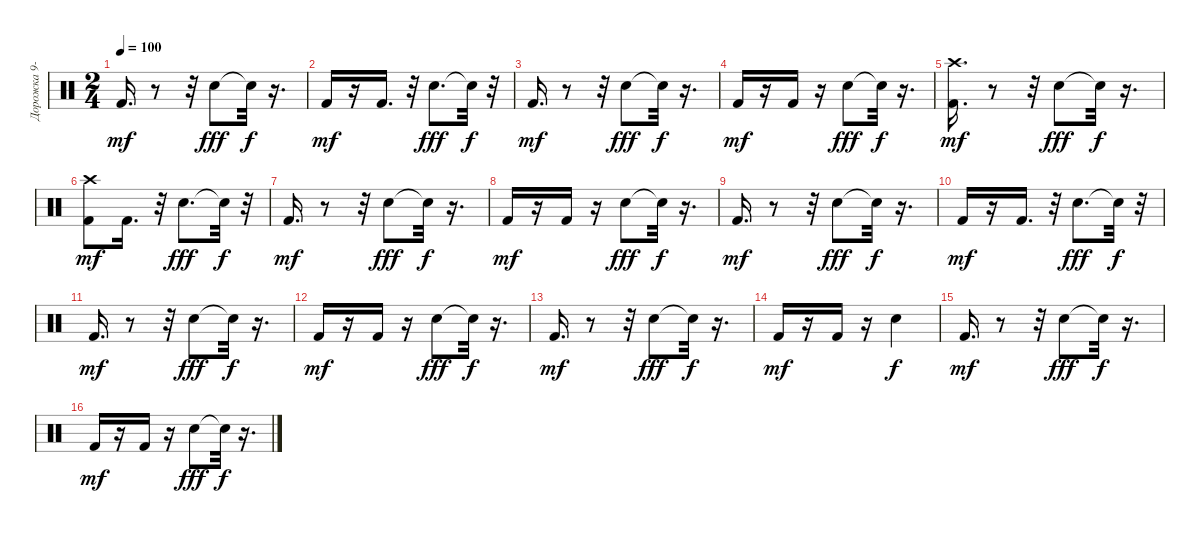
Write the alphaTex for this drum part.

\track ("Дорожка 9-10" "Дорожка 9-") {instrument percussion}
\staff {score}
\articulation defaults
\ts (2 4)
\tempo 100
\clef neutral
\ks c "Kick (hit) 2".16{d dy mf}
r.8 r.32 "Snare (hit) 2".8{dy fff} "Snare (hit)"{t}.32{dy f} r.16{d} |
"Kick (hit) 2".16{dy mf} r.16 "Kick (hit) 2".16{d} r.32 "Snare (hit) 2".8{d dy fff} "Snare (hit)"{t}.32{dy f} r.32 |
"Kick (hit) 2".16{d dy mf} r.8 r.32 "Snare (hit) 2".8{dy fff} "Snare (hit)"{t}.32{dy f} r.16{d} |
"Kick (hit) 2".16{dy mf} r.16 "Kick (hit) 2".16 r.16 "Snare (hit) 2".8{dy fff} "Snare (hit)"{t}.32{dy f} r.16{d} |
("Crash high (hit)" "Kick (hit) 2").16{d dy mf} r.8 r.32 "Snare (hit) 2".8{dy fff} "Snare (hit)"{t}.32{dy f} r.16{d} |
("Crash high (hit)" "Kick (hit) 2").8{dy mf} "Kick (hit) 2".16{d} r.32 "Snare (hit) 2".8{d dy fff} "Snare (hit)"{t}.32{dy f} r.32 |
"Kick (hit) 2".16{d dy mf} r.8 r.32 "Snare (hit) 2".8{dy fff} "Snare (hit)"{t}.32{dy f} r.16{d} |
"Kick (hit) 2".16{dy mf} r.16 "Kick (hit) 2".16 r.16 "Snare (hit) 2".8{dy fff} "Snare (hit)"{t}.32{dy f} r.16{d} |
"Kick (hit) 2".16{d dy mf} r.8 r.32 "Snare (hit) 2".8{dy fff} "Snare (hit)"{t}.32{dy f} r.16{d} |
"Kick (hit) 2".16{dy mf} r.16 "Kick (hit) 2".16{d} r.32 "Snare (hit) 2".8{d dy fff} "Snare (hit)"{t}.32{dy f} r.32 |
"Kick (hit) 2".16{d dy mf} r.8 r.32 "Snare (hit) 2".8{dy fff} "Snare (hit)"{t}.32{dy f} r.16{d} |
"Kick (hit) 2".16{dy mf} r.16 "Kick (hit) 2".16 r.16 "Snare (hit) 2".8{dy fff} "Snare (hit)"{t}.32{dy f} r.16{d} |
"Kick (hit) 2".16{d dy mf} r.8 r.32 "Snare (hit) 2".8{dy fff} "Snare (hit)"{t}.32{dy f} r.16{d} |
"Kick (hit) 2".16{dy mf} r.16 "Kick (hit) 2".16 r.16 "Snare (hit) 2".4{dy f} |
"Kick (hit) 2".16{d dy mf} r.8 r.32 "Snare (hit) 2".8{dy fff} "Snare (hit)"{t}.32{dy f} r.16{d} |
"Kick (hit) 2".16{dy mf} r.16 "Kick (hit) 2".16 r.16 "Snare (hit) 2".8{dy fff} "Snare (hit)"{t}.32{dy f} r.16{d}
